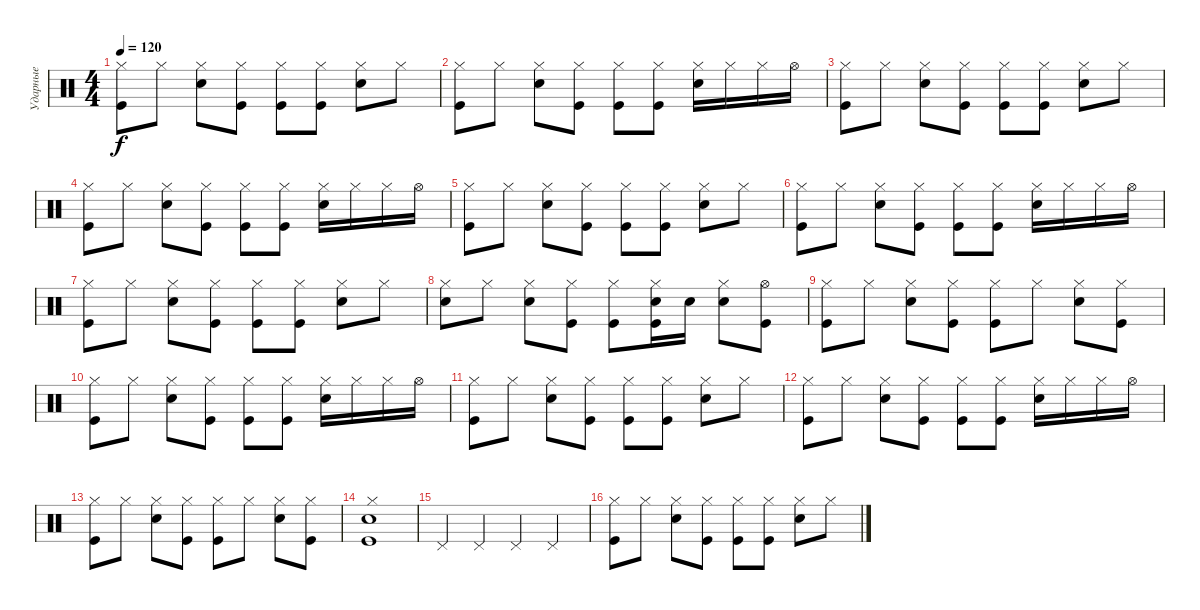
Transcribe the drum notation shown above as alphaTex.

\track ("Ударные" "Ударные") {instrument percussion}
\staff {score}
\articulation defaults
\ts (4 4)
\tempo 120
\clef neutral
\ks c
("Kick (hit)" "Hi-Hat (closed)").8{dy f} "Hi-Hat (closed)".8 ("Hi-Hat (closed)" "Snare (hit) 2").8 ("Hi-Hat (closed)" "Kick (hit)").8 ("Hi-Hat (closed)" "Kick (hit)").8 ("Hi-Hat (closed)" "Kick (hit)").8 ("Hi-Hat (closed)" "Snare (hit) 2").8 "Hi-Hat (closed)".8 |
("Kick (hit)" "Hi-Hat (closed)").8 "Hi-Hat (closed)".8 ("Hi-Hat (closed)" "Snare (hit) 2").8 ("Hi-Hat (closed)" "Kick (hit)").8 ("Hi-Hat (closed)" "Kick (hit)").8 ("Hi-Hat (closed)" "Kick (hit)").8 ("Hi-Hat (closed)" "Snare (hit) 2").16 "Hi-Hat (closed)".16 "Hi-Hat (closed)".16 "Hi-Hat (open)".16 |
("Kick (hit)" "Hi-Hat (closed)").8 "Hi-Hat (closed)".8 ("Hi-Hat (closed)" "Snare (hit) 2").8 ("Hi-Hat (closed)" "Kick (hit)").8 ("Hi-Hat (closed)" "Kick (hit)").8 ("Hi-Hat (closed)" "Kick (hit)").8 ("Hi-Hat (closed)" "Snare (hit) 2").8 "Hi-Hat (closed)".8 |
("Kick (hit)" "Hi-Hat (closed)").8 "Hi-Hat (closed)".8 ("Hi-Hat (closed)" "Snare (hit) 2").8 ("Hi-Hat (closed)" "Kick (hit)").8 ("Hi-Hat (closed)" "Kick (hit)").8 ("Hi-Hat (closed)" "Kick (hit)").8 ("Hi-Hat (closed)" "Snare (hit) 2").16 "Hi-Hat (closed)".16 "Hi-Hat (closed)".16 "Hi-Hat (open)".16 |
("Kick (hit)" "Hi-Hat (closed)").8 "Hi-Hat (closed)".8 ("Hi-Hat (closed)" "Snare (hit) 2").8 ("Hi-Hat (closed)" "Kick (hit)").8 ("Hi-Hat (closed)" "Kick (hit)").8 ("Hi-Hat (closed)" "Kick (hit)").8 ("Hi-Hat (closed)" "Snare (hit) 2").8 "Hi-Hat (closed)".8 |
("Kick (hit)" "Hi-Hat (closed)").8 "Hi-Hat (closed)".8 ("Hi-Hat (closed)" "Snare (hit) 2").8 ("Hi-Hat (closed)" "Kick (hit)").8 ("Hi-Hat (closed)" "Kick (hit)").8 ("Hi-Hat (closed)" "Kick (hit)").8 ("Hi-Hat (closed)" "Snare (hit) 2").16 "Hi-Hat (closed)".16 "Hi-Hat (closed)".16 "Hi-Hat (open)".16 |
("Kick (hit)" "Hi-Hat (closed)").8 "Hi-Hat (closed)".8 ("Hi-Hat (closed)" "Snare (hit) 2").8 ("Hi-Hat (closed)" "Kick (hit)").8 ("Hi-Hat (closed)" "Kick (hit)").8 ("Hi-Hat (closed)" "Kick (hit)").8 ("Hi-Hat (closed)" "Snare (hit) 2").8 "Hi-Hat (closed)".8 |
("Hi-Hat (closed)" "Snare (hit) 2").8 "Hi-Hat (closed)".8 ("Hi-Hat (closed)" "Snare (hit) 2").8 ("Hi-Hat (closed)" "Kick (hit)").8 ("Hi-Hat (closed)" "Kick (hit)").8 ("Hi-Hat (closed)" "Snare (hit) 2" "Kick (hit)").16 "Snare (hit) 2".16 ("Hi-Hat (closed)" "Snare (hit) 2").8 ("Hi-Hat (open)" "Kick (hit)").8 |
("Kick (hit)" "Hi-Hat (closed)").8 "Hi-Hat (closed)".8 ("Hi-Hat (closed)" "Snare (hit) 2").8 ("Hi-Hat (closed)" "Kick (hit)").8 ("Kick (hit)" "Hi-Hat (closed)").8 "Hi-Hat (closed)".8 ("Hi-Hat (closed)" "Snare (hit) 2").8 ("Hi-Hat (closed)" "Kick (hit)").8 |
("Kick (hit)" "Hi-Hat (closed)").8 "Hi-Hat (closed)".8 ("Hi-Hat (closed)" "Snare (hit) 2").8 ("Hi-Hat (closed)" "Kick (hit)").8 ("Hi-Hat (closed)" "Kick (hit)").8 ("Hi-Hat (closed)" "Kick (hit)").8 ("Hi-Hat (closed)" "Snare (hit) 2").16 "Hi-Hat (closed)".16 "Hi-Hat (closed)".16 "Hi-Hat (open)".16 |
("Kick (hit)" "Hi-Hat (closed)").8 "Hi-Hat (closed)".8 ("Hi-Hat (closed)" "Snare (hit) 2").8 ("Hi-Hat (closed)" "Kick (hit)").8 ("Hi-Hat (closed)" "Kick (hit)").8 ("Hi-Hat (closed)" "Kick (hit)").8 ("Hi-Hat (closed)" "Snare (hit) 2").8 "Hi-Hat (closed)".8 |
("Kick (hit)" "Hi-Hat (closed)").8 "Hi-Hat (closed)".8 ("Hi-Hat (closed)" "Snare (hit) 2").8 ("Hi-Hat (closed)" "Kick (hit)").8 ("Hi-Hat (closed)" "Kick (hit)").8 ("Hi-Hat (closed)" "Kick (hit)").8 ("Hi-Hat (closed)" "Snare (hit) 2").16 "Hi-Hat (closed)".16 "Hi-Hat (closed)".16 "Hi-Hat (open)".16 |
("Kick (hit)" "Hi-Hat (closed)").8 "Hi-Hat (closed)".8 ("Hi-Hat (closed)" "Snare (hit) 2").8 ("Hi-Hat (closed)" "Kick (hit)").8 ("Kick (hit)" "Hi-Hat (closed)").8 "Hi-Hat (closed)".8 ("Hi-Hat (closed)" "Snare (hit) 2").8 ("Hi-Hat (closed)" "Kick (hit)").8 |
("Kick (hit)" "Snare (hit) 2" "Hi-Hat (closed)").1 |
"Pedal Hi-Hat (hit)".4 "Pedal Hi-Hat (hit)".4 "Pedal Hi-Hat (hit)".4 "Pedal Hi-Hat (hit)".4 |
("Kick (hit)" "Hi-Hat (closed)").8 "Hi-Hat (closed)".8 ("Hi-Hat (closed)" "Snare (hit) 2").8 ("Hi-Hat (closed)" "Kick (hit)").8 ("Hi-Hat (closed)" "Kick (hit)").8 ("Hi-Hat (closed)" "Kick (hit)").8 ("Hi-Hat (closed)" "Snare (hit) 2").8 "Hi-Hat (closed)".8
